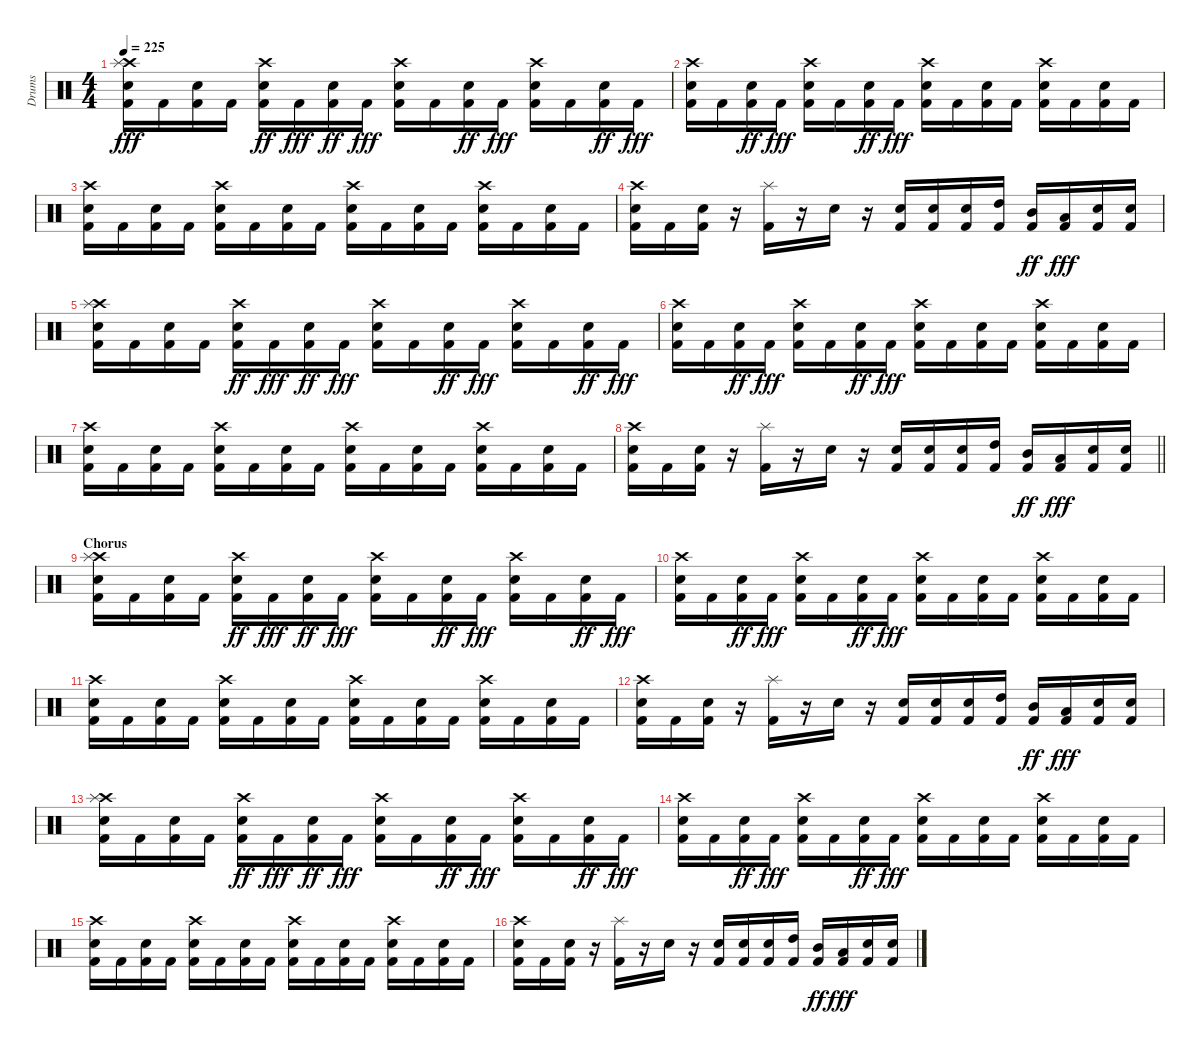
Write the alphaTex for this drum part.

\track ("Drums" "Drums") {instrument percussion}
\staff {score}
\articulation defaults
\ts (4 4)
\tempo 225
\clef neutral
\ks c
("Kick (hit) 2" "Snare (hit) 2" "Crash high (hit)" "Splash (hit)").16{dy fff} "Kick (hit) 2".16 ("Snare (hit) 2" "Kick (hit) 2").16 "Kick (hit) 2".16 ("Crash high (hit)" "Kick (hit) 2" "Snare (hit) 2").16{dy ff} "Kick (hit) 2".16{dy fff} ("Kick (hit) 2" "Snare (hit) 2").16{dy ff} "Kick (hit) 2".16{dy fff} ("Kick (hit) 2" "Snare (hit) 2" "Crash high (hit)").16 "Kick (hit) 2".16 ("Kick (hit) 2" "Snare (hit) 2").16{dy ff} "Kick (hit) 2".16{dy fff} ("Kick (hit) 2" "Snare (hit) 2" "Crash high (hit)").16 "Kick (hit) 2".16 ("Kick (hit) 2" "Snare (hit) 2").16{dy ff} "Kick (hit) 2".16{dy fff} |
("Kick (hit) 2" "Snare (hit) 2" "Crash high (hit)").16 "Kick (hit) 2".16 ("Kick (hit) 2" "Snare (hit) 2").16{dy ff} "Kick (hit) 2".16{dy fff} ("Kick (hit) 2" "Snare (hit) 2" "Crash high (hit)").16 "Kick (hit) 2".16 ("Kick (hit) 2" "Snare (hit) 2").16{dy ff} "Kick (hit) 2".16{dy fff} ("Kick (hit) 2" "Snare (hit) 2" "Crash high (hit)").16 "Kick (hit) 2".16 ("Snare (hit) 2" "Kick (hit) 2").16 "Kick (hit) 2".16 ("Crash high (hit)" "Kick (hit) 2" "Snare (hit) 2").16 "Kick (hit) 2".16 ("Snare (hit) 2" "Kick (hit) 2").16 "Kick (hit) 2".16 |
("Kick (hit) 2" "Snare (hit) 2" "Crash high (hit)").16 "Kick (hit) 2".16 ("Kick (hit) 2" "Snare (hit) 2").16 "Kick (hit) 2".16 ("Kick (hit) 2" "Snare (hit) 2" "Crash high (hit)").16 "Kick (hit) 2".16 ("Kick (hit) 2" "Snare (hit) 2").16 "Kick (hit) 2".16 ("Kick (hit) 2" "Snare (hit) 2" "Crash high (hit)").16 "Kick (hit) 2".16 ("Kick (hit) 2" "Snare (hit) 2").16 "Kick (hit) 2".16 ("Kick (hit) 2" "Snare (hit) 2" "Crash high (hit)").16 "Kick (hit) 2".16 ("Kick (hit) 2" "Snare (hit) 2").16 "Kick (hit) 2".16 |
("Kick (hit) 2" "Snare (hit) 2" "Crash high (hit)").16 "Kick (hit) 2".16 ("Kick (hit) 2" "Snare (hit) 2").16 r.16 ("Kick (hit) 2" "Splash (hit)").16 r.16 "Snare (hit) 2".16 r.16 ("Kick (hit) 2" "Snare (hit) 2").16 ("Snare (hit) 2" "Kick (hit) 2").16 ("Snare (hit) 2" "Kick (hit) 2").16 ("High Tom (hit)" "Kick (hit) 2").16 ("Mid Tom (hit)" "Kick (hit) 2").16{dy ff} ("Low Tom (hit)" "Kick (hit) 2").16{dy fff} ("Kick (hit) 2" "Snare (hit) 2").16 ("Kick (hit) 2" "Snare (hit) 2").16 |
("Kick (hit) 2" "Snare (hit) 2" "Crash high (hit)" "Splash (hit)").16 "Kick (hit) 2".16 ("Snare (hit) 2" "Kick (hit) 2").16 "Kick (hit) 2".16 ("Crash high (hit)" "Kick (hit) 2" "Snare (hit) 2").16{dy ff} "Kick (hit) 2".16{dy fff} ("Kick (hit) 2" "Snare (hit) 2").16{dy ff} "Kick (hit) 2".16{dy fff} ("Kick (hit) 2" "Snare (hit) 2" "Crash high (hit)").16 "Kick (hit) 2".16 ("Kick (hit) 2" "Snare (hit) 2").16{dy ff} "Kick (hit) 2".16{dy fff} ("Kick (hit) 2" "Snare (hit) 2" "Crash high (hit)").16 "Kick (hit) 2".16 ("Kick (hit) 2" "Snare (hit) 2").16{dy ff} "Kick (hit) 2".16{dy fff} |
("Kick (hit) 2" "Snare (hit) 2" "Crash high (hit)").16 "Kick (hit) 2".16 ("Kick (hit) 2" "Snare (hit) 2").16{dy ff} "Kick (hit) 2".16{dy fff} ("Kick (hit) 2" "Snare (hit) 2" "Crash high (hit)").16 "Kick (hit) 2".16 ("Kick (hit) 2" "Snare (hit) 2").16{dy ff} "Kick (hit) 2".16{dy fff} ("Kick (hit) 2" "Snare (hit) 2" "Crash high (hit)").16 "Kick (hit) 2".16 ("Snare (hit) 2" "Kick (hit) 2").16 "Kick (hit) 2".16 ("Crash high (hit)" "Kick (hit) 2" "Snare (hit) 2").16 "Kick (hit) 2".16 ("Snare (hit) 2" "Kick (hit) 2").16 "Kick (hit) 2".16 |
("Kick (hit) 2" "Snare (hit) 2" "Crash high (hit)").16 "Kick (hit) 2".16 ("Kick (hit) 2" "Snare (hit) 2").16 "Kick (hit) 2".16 ("Kick (hit) 2" "Snare (hit) 2" "Crash high (hit)").16 "Kick (hit) 2".16 ("Kick (hit) 2" "Snare (hit) 2").16 "Kick (hit) 2".16 ("Kick (hit) 2" "Snare (hit) 2" "Crash high (hit)").16 "Kick (hit) 2".16 ("Kick (hit) 2" "Snare (hit) 2").16 "Kick (hit) 2".16 ("Kick (hit) 2" "Snare (hit) 2" "Crash high (hit)").16 "Kick (hit) 2".16 ("Kick (hit) 2" "Snare (hit) 2").16 "Kick (hit) 2".16 |
\barLineRight lightlight
("Kick (hit) 2" "Snare (hit) 2" "Crash high (hit)").16 "Kick (hit) 2".16 ("Kick (hit) 2" "Snare (hit) 2").16 r.16 ("Kick (hit) 2" "Splash (hit)").16 r.16 "Snare (hit) 2".16 r.16 ("Kick (hit) 2" "Snare (hit) 2").16 ("Snare (hit) 2" "Kick (hit) 2").16 ("Snare (hit) 2" "Kick (hit) 2").16 ("High Tom (hit)" "Kick (hit) 2").16 ("Mid Tom (hit)" "Kick (hit) 2").16{dy ff} ("Low Tom (hit)" "Kick (hit) 2").16{dy fff} ("Kick (hit) 2" "Snare (hit) 2").16 ("Kick (hit) 2" "Snare (hit) 2").16 |
\section ("" "Chorus")
("Kick (hit) 2" "Snare (hit) 2" "Crash high (hit)" "Splash (hit)").16 "Kick (hit) 2".16 ("Snare (hit) 2" "Kick (hit) 2").16 "Kick (hit) 2".16 ("Crash high (hit)" "Kick (hit) 2" "Snare (hit) 2").16{dy ff} "Kick (hit) 2".16{dy fff} ("Kick (hit) 2" "Snare (hit) 2").16{dy ff} "Kick (hit) 2".16{dy fff} ("Kick (hit) 2" "Snare (hit) 2" "Crash high (hit)").16 "Kick (hit) 2".16 ("Kick (hit) 2" "Snare (hit) 2").16{dy ff} "Kick (hit) 2".16{dy fff} ("Kick (hit) 2" "Snare (hit) 2" "Crash high (hit)").16 "Kick (hit) 2".16 ("Kick (hit) 2" "Snare (hit) 2").16{dy ff} "Kick (hit) 2".16{dy fff} |
("Kick (hit) 2" "Snare (hit) 2" "Crash high (hit)").16 "Kick (hit) 2".16 ("Kick (hit) 2" "Snare (hit) 2").16{dy ff} "Kick (hit) 2".16{dy fff} ("Kick (hit) 2" "Snare (hit) 2" "Crash high (hit)").16 "Kick (hit) 2".16 ("Kick (hit) 2" "Snare (hit) 2").16{dy ff} "Kick (hit) 2".16{dy fff} ("Kick (hit) 2" "Snare (hit) 2" "Crash high (hit)").16 "Kick (hit) 2".16 ("Snare (hit) 2" "Kick (hit) 2").16 "Kick (hit) 2".16 ("Crash high (hit)" "Kick (hit) 2" "Snare (hit) 2").16 "Kick (hit) 2".16 ("Snare (hit) 2" "Kick (hit) 2").16 "Kick (hit) 2".16 |
("Kick (hit) 2" "Snare (hit) 2" "Crash high (hit)").16 "Kick (hit) 2".16 ("Kick (hit) 2" "Snare (hit) 2").16 "Kick (hit) 2".16 ("Kick (hit) 2" "Snare (hit) 2" "Crash high (hit)").16 "Kick (hit) 2".16 ("Kick (hit) 2" "Snare (hit) 2").16 "Kick (hit) 2".16 ("Kick (hit) 2" "Snare (hit) 2" "Crash high (hit)").16 "Kick (hit) 2".16 ("Kick (hit) 2" "Snare (hit) 2").16 "Kick (hit) 2".16 ("Kick (hit) 2" "Snare (hit) 2" "Crash high (hit)").16 "Kick (hit) 2".16 ("Kick (hit) 2" "Snare (hit) 2").16 "Kick (hit) 2".16 |
("Kick (hit) 2" "Snare (hit) 2" "Crash high (hit)").16 "Kick (hit) 2".16 ("Kick (hit) 2" "Snare (hit) 2").16 r.16 ("Kick (hit) 2" "Splash (hit)").16 r.16 "Snare (hit) 2".16 r.16 ("Kick (hit) 2" "Snare (hit) 2").16 ("Snare (hit) 2" "Kick (hit) 2").16 ("Snare (hit) 2" "Kick (hit) 2").16 ("High Tom (hit)" "Kick (hit) 2").16 ("Mid Tom (hit)" "Kick (hit) 2").16{dy ff} ("Low Tom (hit)" "Kick (hit) 2").16{dy fff} ("Kick (hit) 2" "Snare (hit) 2").16 ("Kick (hit) 2" "Snare (hit) 2").16 |
("Kick (hit) 2" "Snare (hit) 2" "Crash high (hit)" "Splash (hit)").16 "Kick (hit) 2".16 ("Snare (hit) 2" "Kick (hit) 2").16 "Kick (hit) 2".16 ("Crash high (hit)" "Kick (hit) 2" "Snare (hit) 2").16{dy ff} "Kick (hit) 2".16{dy fff} ("Kick (hit) 2" "Snare (hit) 2").16{dy ff} "Kick (hit) 2".16{dy fff} ("Kick (hit) 2" "Snare (hit) 2" "Crash high (hit)").16 "Kick (hit) 2".16 ("Kick (hit) 2" "Snare (hit) 2").16{dy ff} "Kick (hit) 2".16{dy fff} ("Kick (hit) 2" "Snare (hit) 2" "Crash high (hit)").16 "Kick (hit) 2".16 ("Kick (hit) 2" "Snare (hit) 2").16{dy ff} "Kick (hit) 2".16{dy fff} |
("Kick (hit) 2" "Snare (hit) 2" "Crash high (hit)").16 "Kick (hit) 2".16 ("Kick (hit) 2" "Snare (hit) 2").16{dy ff} "Kick (hit) 2".16{dy fff} ("Kick (hit) 2" "Snare (hit) 2" "Crash high (hit)").16 "Kick (hit) 2".16 ("Kick (hit) 2" "Snare (hit) 2").16{dy ff} "Kick (hit) 2".16{dy fff} ("Kick (hit) 2" "Snare (hit) 2" "Crash high (hit)").16 "Kick (hit) 2".16 ("Snare (hit) 2" "Kick (hit) 2").16 "Kick (hit) 2".16 ("Crash high (hit)" "Kick (hit) 2" "Snare (hit) 2").16 "Kick (hit) 2".16 ("Snare (hit) 2" "Kick (hit) 2").16 "Kick (hit) 2".16 |
("Kick (hit) 2" "Snare (hit) 2" "Crash high (hit)").16 "Kick (hit) 2".16 ("Kick (hit) 2" "Snare (hit) 2").16 "Kick (hit) 2".16 ("Kick (hit) 2" "Snare (hit) 2" "Crash high (hit)").16 "Kick (hit) 2".16 ("Kick (hit) 2" "Snare (hit) 2").16 "Kick (hit) 2".16 ("Kick (hit) 2" "Snare (hit) 2" "Crash high (hit)").16 "Kick (hit) 2".16 ("Kick (hit) 2" "Snare (hit) 2").16 "Kick (hit) 2".16 ("Kick (hit) 2" "Snare (hit) 2" "Crash high (hit)").16 "Kick (hit) 2".16 ("Kick (hit) 2" "Snare (hit) 2").16 "Kick (hit) 2".16 |
("Kick (hit) 2" "Snare (hit) 2" "Crash high (hit)").16 "Kick (hit) 2".16 ("Kick (hit) 2" "Snare (hit) 2").16 r.16 ("Kick (hit) 2" "Splash (hit)").16 r.16 "Snare (hit) 2".16 r.16 ("Kick (hit) 2" "Snare (hit) 2").16 ("Snare (hit) 2" "Kick (hit) 2").16 ("Snare (hit) 2" "Kick (hit) 2").16 ("High Tom (hit)" "Kick (hit) 2").16 ("Mid Tom (hit)" "Kick (hit) 2").16{dy ff} ("Low Tom (hit)" "Kick (hit) 2").16{dy fff} ("Kick (hit) 2" "Snare (hit) 2").16 ("Kick (hit) 2" "Snare (hit) 2").16
